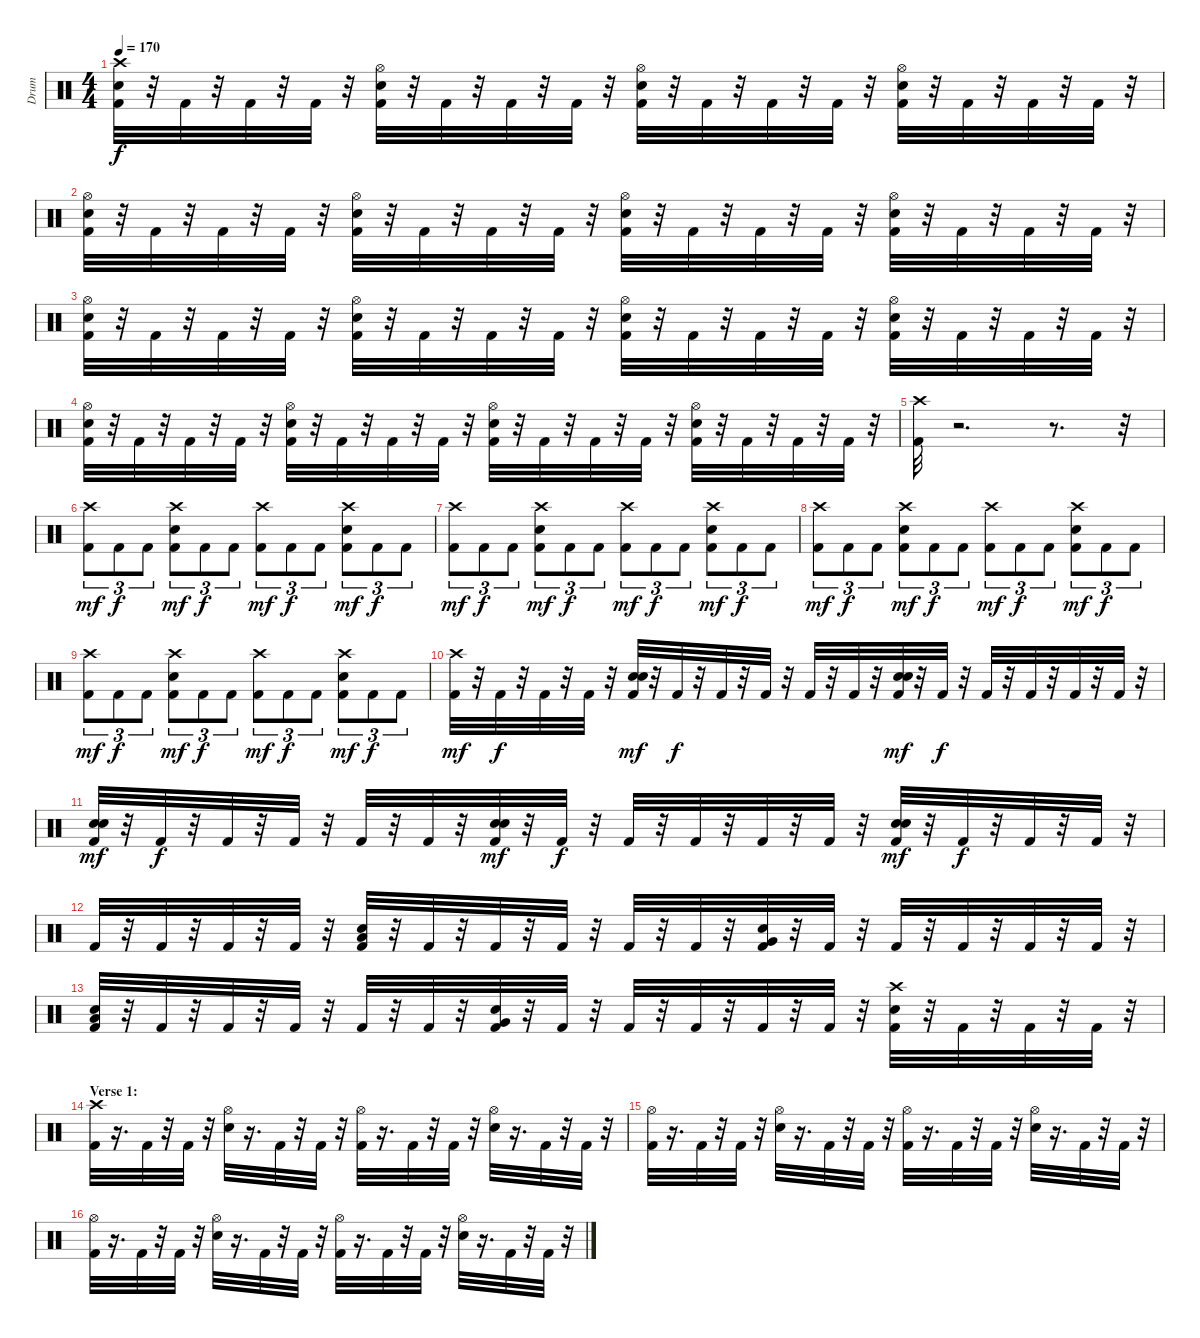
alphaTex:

\track ("Drum" "Drum") {instrument percussion}
\staff {score}
\articulation defaults
\ts (4 4)
\tempo 170
\clef neutral
\ks c
("Snare (hit) 2" "Kick (hit) 2" "Crash high (hit)").32{dy f} r.32 "Kick (hit) 2".32 r.32 "Kick (hit) 2".32 r.32 "Kick (hit) 2".32 r.32 ("Snare (hit) 2" "Kick (hit) 2" "Hi-Hat (open)").32 r.32 "Kick (hit) 2".32 r.32 "Kick (hit) 2".32 r.32 "Kick (hit) 2".32 r.32 ("Snare (hit) 2" "Kick (hit) 2" "Hi-Hat (open)").32 r.32 "Kick (hit) 2".32 r.32 "Kick (hit) 2".32 r.32 "Kick (hit) 2".32 r.32 ("Snare (hit) 2" "Kick (hit) 2" "Hi-Hat (open)").32 r.32 "Kick (hit) 2".32 r.32 "Kick (hit) 2".32 r.32 "Kick (hit) 2".32 r.32 |
("Snare (hit) 2" "Kick (hit) 2" "Hi-Hat (open)").32 r.32 "Kick (hit) 2".32 r.32 "Kick (hit) 2".32 r.32 "Kick (hit) 2".32 r.32 ("Snare (hit) 2" "Kick (hit) 2" "Hi-Hat (open)").32 r.32 "Kick (hit) 2".32 r.32 "Kick (hit) 2".32 r.32 "Kick (hit) 2".32 r.32 ("Snare (hit) 2" "Kick (hit) 2" "Hi-Hat (open)").32 r.32 "Kick (hit) 2".32 r.32 "Kick (hit) 2".32 r.32 "Kick (hit) 2".32 r.32 ("Snare (hit) 2" "Kick (hit) 2" "Hi-Hat (open)").32 r.32 "Kick (hit) 2".32 r.32 "Kick (hit) 2".32 r.32 "Kick (hit) 2".32 r.32 |
("Snare (hit) 2" "Kick (hit) 2" "Hi-Hat (open)").32 r.32 "Kick (hit) 2".32 r.32 "Kick (hit) 2".32 r.32 "Kick (hit) 2".32 r.32 ("Snare (hit) 2" "Kick (hit) 2" "Hi-Hat (open)").32 r.32 "Kick (hit) 2".32 r.32 "Kick (hit) 2".32 r.32 "Kick (hit) 2".32 r.32 ("Snare (hit) 2" "Kick (hit) 2" "Hi-Hat (open)").32 r.32 "Kick (hit) 2".32 r.32 "Kick (hit) 2".32 r.32 "Kick (hit) 2".32 r.32 ("Snare (hit) 2" "Kick (hit) 2" "Hi-Hat (open)").32 r.32 "Kick (hit) 2".32 r.32 "Kick (hit) 2".32 r.32 "Kick (hit) 2".32 r.32 |
("Snare (hit) 2" "Kick (hit) 2" "Hi-Hat (open)").32 r.32 "Kick (hit) 2".32 r.32 "Kick (hit) 2".32 r.32 "Kick (hit) 2".32 r.32 ("Snare (hit) 2" "Kick (hit) 2" "Hi-Hat (open)").32 r.32 "Kick (hit) 2".32 r.32 "Kick (hit) 2".32 r.32 "Kick (hit) 2".32 r.32 ("Snare (hit) 2" "Kick (hit) 2" "Hi-Hat (open)").32 r.32 "Kick (hit) 2".32 r.32 "Kick (hit) 2".32 r.32 "Kick (hit) 2".32 r.32 ("Snare (hit) 2" "Kick (hit) 2" "Hi-Hat (open)").32 r.32 "Kick (hit) 2".32 r.32 "Kick (hit) 2".32 r.32 "Kick (hit) 2".32 r.32 |
("Crash high (hit)" "Kick (hit) 2").32 r.2{d} r.8{d} r.32 |
("Kick (hit) 2" "Crash high (hit)").8{tu (3 2) dy mf} "Kick (hit) 2".8{tu (3 2) dy f} "Kick (hit) 2".8{tu (3 2)} ("Kick (hit) 2" "Crash high (hit)" "Snare (hit) 2").8{tu (3 2) dy mf} "Kick (hit) 2".8{tu (3 2) dy f} "Kick (hit) 2".8{tu (3 2)} ("Kick (hit) 2" "Crash high (hit)").8{tu (3 2) dy mf} "Kick (hit) 2".8{tu (3 2) dy f} "Kick (hit) 2".8{tu (3 2)} ("Kick (hit) 2" "Crash high (hit)" "Snare (hit) 2").8{tu (3 2) dy mf} "Kick (hit) 2".8{tu (3 2) dy f} "Kick (hit) 2".8{tu (3 2)} |
("Kick (hit) 2" "Crash high (hit)").8{tu (3 2) dy mf} "Kick (hit) 2".8{tu (3 2) dy f} "Kick (hit) 2".8{tu (3 2)} ("Kick (hit) 2" "Crash high (hit)" "Snare (hit) 2").8{tu (3 2) dy mf} "Kick (hit) 2".8{tu (3 2) dy f} "Kick (hit) 2".8{tu (3 2)} ("Kick (hit) 2" "Crash high (hit)").8{tu (3 2) dy mf} "Kick (hit) 2".8{tu (3 2) dy f} "Kick (hit) 2".8{tu (3 2)} ("Kick (hit) 2" "Crash high (hit)" "Snare (hit) 2").8{tu (3 2) dy mf} "Kick (hit) 2".8{tu (3 2) dy f} "Kick (hit) 2".8{tu (3 2)} |
("Kick (hit) 2" "Crash high (hit)").8{tu (3 2) dy mf} "Kick (hit) 2".8{tu (3 2) dy f} "Kick (hit) 2".8{tu (3 2)} ("Kick (hit) 2" "Crash high (hit)" "Snare (hit) 2").8{tu (3 2) dy mf} "Kick (hit) 2".8{tu (3 2) dy f} "Kick (hit) 2".8{tu (3 2)} ("Kick (hit) 2" "Crash high (hit)").8{tu (3 2) dy mf} "Kick (hit) 2".8{tu (3 2) dy f} "Kick (hit) 2".8{tu (3 2)} ("Kick (hit) 2" "Crash high (hit)" "Snare (hit) 2").8{tu (3 2) dy mf} "Kick (hit) 2".8{tu (3 2) dy f} "Kick (hit) 2".8{tu (3 2)} |
("Kick (hit) 2" "Crash high (hit)").8{tu (3 2) dy mf} "Kick (hit) 2".8{tu (3 2) dy f} "Kick (hit) 2".8{tu (3 2)} ("Kick (hit) 2" "Crash high (hit)" "Snare (hit) 2").8{tu (3 2) dy mf} "Kick (hit) 2".8{tu (3 2) dy f} "Kick (hit) 2".8{tu (3 2)} ("Kick (hit) 2" "Crash high (hit)").8{tu (3 2) dy mf} "Kick (hit) 2".8{tu (3 2) dy f} "Kick (hit) 2".8{tu (3 2)} ("Kick (hit) 2" "Crash high (hit)" "Snare (hit) 2").8{tu (3 2) dy mf} "Kick (hit) 2".8{tu (3 2) dy f} "Kick (hit) 2".8{tu (3 2)} |
("Kick (hit) 2" "Crash high (hit)").32{dy mf} r.32 "Kick (hit) 2".32{dy f} r.32 "Kick (hit) 2".32 r.32 "Kick (hit) 2".32 r.32 ("Kick (hit) 2" "Snare (hit) 2" "Snare (hit) 2").32{dy mf} r.32 "Kick (hit) 2".32{dy f} r.32 "Kick (hit) 2".32 r.32 "Kick (hit) 2".32 r.32 "Kick (hit) 2".32 r.32 "Kick (hit) 2".32 r.32 ("Snare (hit) 2" "Kick (hit) 2" "Snare (hit) 2").32{dy mf} r.32 "Kick (hit) 2".32{dy f} r.32 "Kick (hit) 2".32 r.32 "Kick (hit) 2".32 r.32 "Kick (hit) 2".32 r.32 "Kick (hit) 2".32 r.32 |
("Snare (hit) 2" "Kick (hit) 2" "Snare (hit) 2").32{dy mf} r.32 "Kick (hit) 2".32{dy f} r.32 "Kick (hit) 2".32 r.32 "Kick (hit) 2".32 r.32 "Kick (hit) 2".32 r.32 "Kick (hit) 2".32 r.32 ("Snare (hit) 2" "Kick (hit) 2" "Snare (hit) 2").32{dy mf} r.32 "Kick (hit) 2".32{dy f} r.32 "Kick (hit) 2".32 r.32 "Kick (hit) 2".32 r.32 "Kick (hit) 2".32 r.32 "Kick (hit) 2".32 r.32 ("Snare (hit) 2" "Kick (hit) 2" "Snare (hit) 2").32{dy mf} r.32 "Kick (hit) 2".32{dy f} r.32 "Kick (hit) 2".32 r.32 "Kick (hit) 2".32 r.32 |
"Kick (hit) 2".32 r.32 "Kick (hit) 2".32 r.32 "Kick (hit) 2".32 r.32 "Kick (hit) 2".32 r.32 ("Low Tom (hit)" "Snare (hit) 2" "Kick (hit) 2").32 r.32 "Kick (hit) 2".32 r.32 "Kick (hit) 2".32 r.32 "Kick (hit) 2".32 r.32 "Kick (hit) 2".32 r.32 "Kick (hit) 2".32 r.32 ("Very Low Tom (hit)" "Snare (hit) 2" "Kick (hit) 2").32 r.32 "Kick (hit) 2".32 r.32 "Kick (hit) 2".32 r.32 "Kick (hit) 2".32 r.32 "Kick (hit) 2".32 r.32 "Kick (hit) 2".32 r.32 |
("Low Floor Tom (hit)" "Snare (hit) 2" "Kick (hit) 2").32 r.32 "Kick (hit) 2".32 r.32 "Kick (hit) 2".32 r.32 "Kick (hit) 2".32 r.32 "Kick (hit) 2".32 r.32 "Kick (hit) 2".32 r.32 ("Very Low Tom (hit)" "Snare (hit) 2" "Kick (hit) 2").32 r.32 "Kick (hit) 2".32 r.32 "Kick (hit) 2".32 r.32 "Kick (hit) 2".32 r.32 "Kick (hit) 2".32 r.32 "Kick (hit) 2".32 r.32 ("Crash high (hit)" "Snare (hit) 2" "Kick (hit) 2").32 r.32 "Kick (hit) 2".32 r.32 "Kick (hit) 2".32 r.32 "Kick (hit) 2".32 r.32 |
\section ("" "Verse 1:")
("Crash high (hit)" "Kick (hit) 2").32 r.16{d} "Kick (hit) 2".32 r.32 "Kick (hit) 2".32 r.32 ("Hi-Hat (open)" "Snare (hit) 2").32 r.16{d} "Kick (hit) 2".32 r.32 "Kick (hit) 2".32 r.32 ("Hi-Hat (open)" "Kick (hit) 2").32 r.16{d} "Kick (hit) 2".32 r.32 "Kick (hit) 2".32 r.32 ("Hi-Hat (open)" "Snare (hit) 2").32 r.16{d} "Kick (hit) 2".32 r.32 "Kick (hit) 2".32 r.32 |
("Hi-Hat (open)" "Kick (hit) 2").32 r.16{d} "Kick (hit) 2".32 r.32 "Kick (hit) 2".32 r.32 ("Hi-Hat (open)" "Snare (hit) 2").32 r.16{d} "Kick (hit) 2".32 r.32 "Kick (hit) 2".32 r.32 ("Hi-Hat (open)" "Kick (hit) 2").32 r.16{d} "Kick (hit) 2".32 r.32 "Kick (hit) 2".32 r.32 ("Hi-Hat (open)" "Snare (hit) 2").32 r.16{d} "Kick (hit) 2".32 r.32 "Kick (hit) 2".32 r.32 |
("Kick (hit) 2" "Hi-Hat (open)").32 r.16{d} "Kick (hit) 2".32 r.32 "Kick (hit) 2".32 r.32 ("Snare (hit) 2" "Hi-Hat (open)").32 r.16{d} "Kick (hit) 2".32 r.32 "Kick (hit) 2".32 r.32 ("Kick (hit) 2" "Hi-Hat (open)").32 r.16{d} "Kick (hit) 2".32 r.32 "Kick (hit) 2".32 r.32 ("Snare (hit) 2" "Hi-Hat (open)").32 r.16{d} "Kick (hit) 2".32 r.32 "Kick (hit) 2".32 r.32
